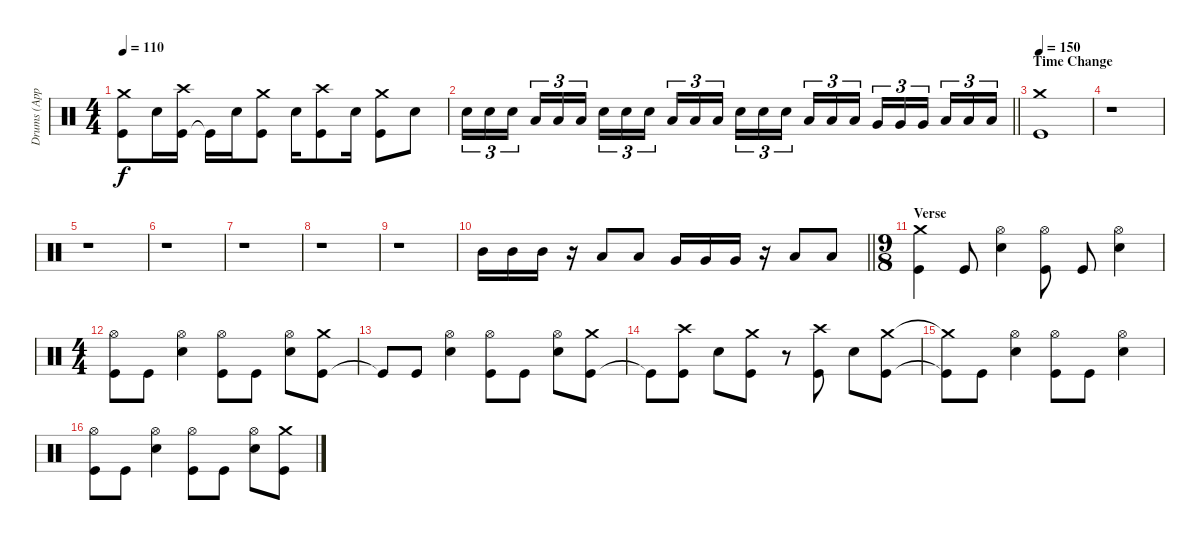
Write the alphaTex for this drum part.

\track ("Drums (Appelhans/Durst)" "Drums (App") {instrument percussion}
\staff {score}
\articulation defaults
\ts (4 4)
\tempo 110
\clef neutral
\ks c
("Kick (hit)" "Crash medium (hit)").8{dy f} "Snare (hit) 2".16 ("Kick (hit)" "Crash high (hit)").16 "Kick (hit)"{t}.16 "Snare (hit) 2".16 ("Kick (hit)" "Crash medium (hit)").8 "Snare (hit) 2".16 ("Kick (hit)" "Crash high (hit)").8 "Snare (hit) 2".16 ("Kick (hit)" "Crash medium (hit)").8 "Snare (hit) 2".8 |
\barLineRight lightlight "Snare (hit) 2".16{tu (3 2)} "Snare (hit) 2".16{tu (3 2)} "Snare (hit) 2".16{tu (3 2)} "Low Tom (hit)".16{tu (3 2)} "Low Tom (hit)".16{tu (3 2)} "Low Tom (hit)".16{tu (3 2)} "Snare (hit) 2".16{tu (3 2)} "Snare (hit) 2".16{tu (3 2)} "Snare (hit) 2".16{tu (3 2)} "Low Tom (hit)".16{tu (3 2)} "Low Tom (hit)".16{tu (3 2)} "Low Tom (hit)".16{tu (3 2)} "Snare (hit) 2".16{tu (3 2)} "Snare (hit) 2".16{tu (3 2)} "Snare (hit) 2".16{tu (3 2)} "Low Tom (hit)".16{tu (3 2)} "Low Tom (hit)".16{tu (3 2)} "Low Tom (hit)".16{tu (3 2)} "Very Low Tom (hit)".16{tu (3 2)} "Very Low Tom (hit)".16{tu (3 2)} "Very Low Tom (hit)".16{tu (3 2)} "Low Floor Tom (hit)".16{tu (3 2)} "Low Floor Tom (hit)".16{tu (3 2)} "Low Floor Tom (hit)".16{tu (3 2)}
|
\section ("" "Time Change")
\tempo 150
("Kick (hit)" "Crash medium (hit)").1 |
r.1 |
r.1 |
r.1 |
r.1 |
r.1 |
r.1 |
\barLineRight lightlight "Mid Tom (hit)".16 "Mid Tom (hit)".16 "Mid Tom (hit)".16
r.16 "Low Tom (hit)".8 "Low Tom (hit)".8 "Very Low Tom (hit)".16 "Very Low Tom (hit)".16 "Very Low Tom (hit)".16 r.16 "Low Floor Tom (hit)".8 "Low Floor Tom (hit)".8 |
\ts (9 8)
\section ("" "Verse")
("Kick (hit)" "Crash medium (hit)").4 "Kick (hit)".8 ("Snare (hit) 2" "Hi-Hat (open)").4 ("Kick (hit)" "Hi-Hat (open)").8 "Kick (hit)".8 ("Snare (hit) 2" "Hi-Hat (open)").4 |
\ts (4 4)
("Kick (hit)" "Hi-Hat (open)").8 "Kick (hit)".8 ("Snare (hit) 2" "Hi-Hat (open)").4 ("Kick (hit)" "Hi-Hat (open)").8 "Kick (hit)".8 ("Snare (hit) 2" "Hi-Hat (open)").8 ("Kick (hit)" "Crash medium (hit)").8 |
"Kick (hit)"{t}.8 "Kick (hit)".8 ("Snare (hit) 2" "Hi-Hat (open)").4 ("Kick (hit)" "Hi-Hat (open)").8 "Kick (hit)".8 ("Snare (hit) 2" "Hi-Hat (open)").8 ("Kick (hit)" "Crash medium (hit)").8 |
"Kick (hit)"{t}.8 ("Kick (hit)" "Crash high (hit)").8 "Snare (hit) 2".8 ("Kick (hit)" "Crash medium (hit)").8 r.8 ("Kick (hit)" "Crash high (hit)").8 "Snare (hit) 2".8 ("Kick (hit)" "Crash medium (hit)").8 |
("Kick (hit)"{t} "Crash medium (hit)"{t}).8 "Kick (hit)".8 ("Snare (hit) 2" "Hi-Hat (open)").4 ("Kick (hit)" "Hi-Hat (open)").8 "Kick (hit)".8 ("Snare (hit) 2" "Hi-Hat (open)").4 |
("Kick (hit)" "Hi-Hat (open)").8 "Kick (hit)".8 ("Snare (hit) 2" "Hi-Hat (open)").4 ("Kick (hit)" "Hi-Hat (open)").8 "Kick (hit)".8 ("Snare (hit) 2" "Hi-Hat (open)").8 ("Kick (hit)" "Crash medium (hit)").8
